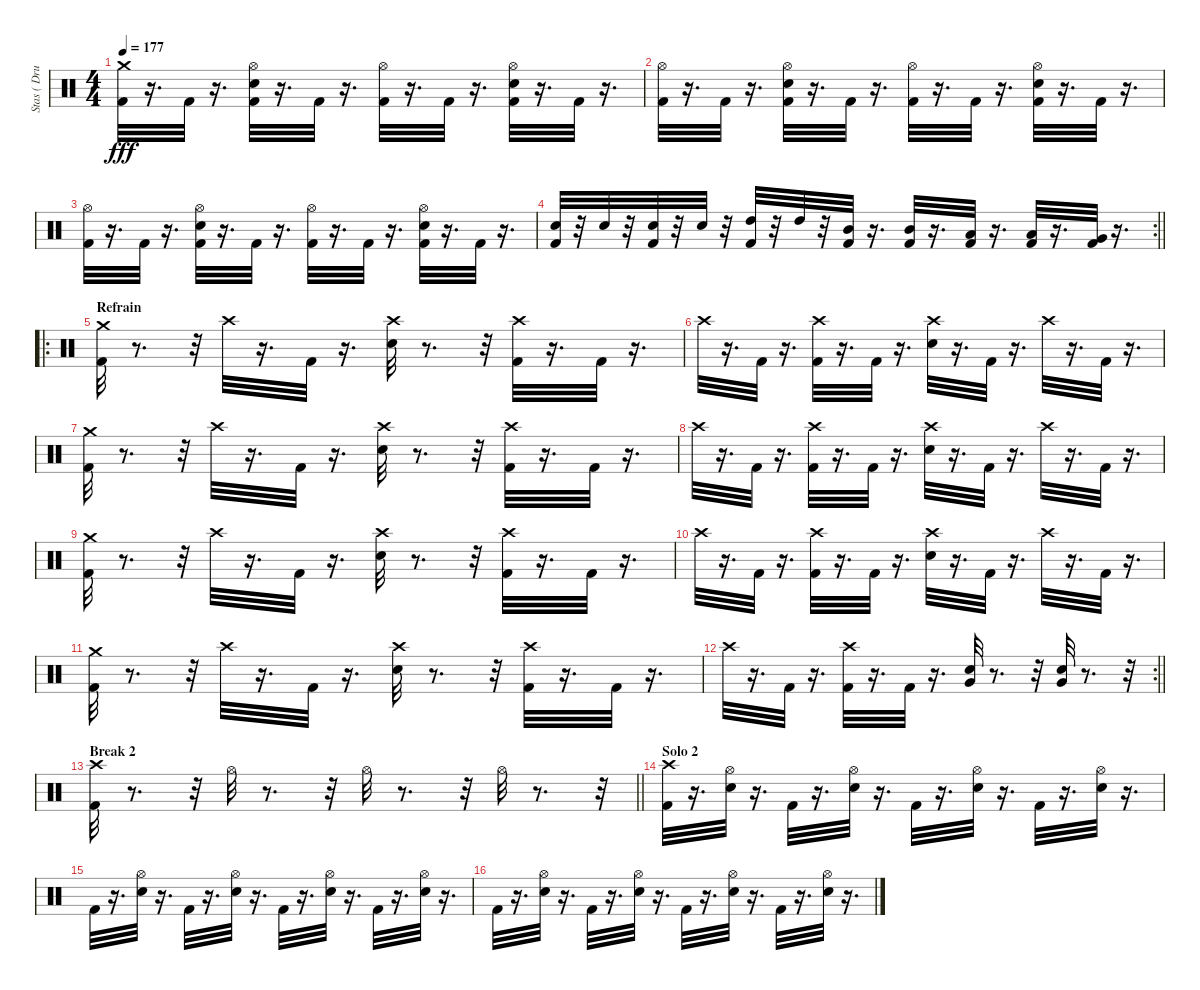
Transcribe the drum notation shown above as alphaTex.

\track ("Stas ( Drums )" "Stas ( Dru") {instrument percussion}
\staff {score}
\articulation defaults
\ts (4 4)
\tempo 177
\clef neutral
\ks c
("Kick (hit) 2" "Crash medium (hit)").32{dy fff} r.16{d} "Kick (hit) 2".32 r.16{d} ("Kick (hit) 2" "Electric Snare (hit)" "Hi-Hat (open)").32 r.16{d} "Kick (hit) 2".32 r.16{d} ("Kick (hit) 2" "Hi-Hat (open)").32 r.16{d} "Kick (hit) 2".32 r.16{d} ("Kick (hit) 2" "Electric Snare (hit)" "Hi-Hat (open)").32 r.16{d} "Kick (hit) 2".32 r.16{d} |
("Kick (hit) 2" "Hi-Hat (open)").32 r.16{d} "Kick (hit) 2".32 r.16{d} ("Kick (hit) 2" "Electric Snare (hit)" "Hi-Hat (open)").32 r.16{d} "Kick (hit) 2".32 r.16{d} ("Kick (hit) 2" "Hi-Hat (open)").32 r.16{d} "Kick (hit) 2".32 r.16{d} ("Kick (hit) 2" "Electric Snare (hit)" "Hi-Hat (open)").32 r.16{d} "Kick (hit) 2".32 r.16{d} |
("Kick (hit) 2" "Hi-Hat (open)").32 r.16{d} "Kick (hit) 2".32 r.16{d} ("Kick (hit) 2" "Electric Snare (hit)" "Hi-Hat (open)").32 r.16{d} "Kick (hit) 2".32 r.16{d} ("Kick (hit) 2" "Hi-Hat (open)").32 r.16{d} "Kick (hit) 2".32 r.16{d} ("Kick (hit) 2" "Electric Snare (hit)" "Hi-Hat (open)").32 r.16{d} "Kick (hit) 2".32 r.16{d} |
\rc 2
\barLineRight lightlight
("Kick (hit) 2" "Electric Snare (hit)").32 r.32 "Electric Snare (hit)".32 r.32 ("Kick (hit) 2" "Electric Snare (hit)").32 r.32 "Electric Snare (hit)".32 r.32 ("Kick (hit) 2" "High Tom (hit)").32 r.32 "High Tom (hit)".32 r.32 ("Kick (hit) 2" "Mid Tom (hit)").32 r.16{d} ("Kick (hit) 2" "Mid Tom (hit)").32 r.16{d} ("Kick (hit) 2" "Low Tom (hit)").32 r.16{d} ("Kick (hit) 2" "Low Tom (hit)").32 r.16{d} ("Kick (hit) 2" "Very Low Tom (hit)").32 r.16{d} |
\ro
\section ("" "Refrain")
("Kick (hit) 2" "Crash medium (hit)").32 r.8{d} r.32 "Crash high (hit)".32 r.16{d} "Kick (hit) 2".32 r.16{d} ("Electric Snare (hit)" "Crash high (hit)").32 r.8{d} r.32 ("Kick (hit) 2" "Crash high (hit)").32 r.16{d} "Kick (hit) 2".32 r.16{d} |
"Crash high (hit)".32 r.16{d} "Kick (hit) 2".32 r.16{d} ("Kick (hit) 2" "Crash high (hit)").32 r.16{d} "Kick (hit) 2".32 r.16{d} ("Electric Snare (hit)" "Crash high (hit)").32 r.16{d} "Kick (hit) 2".32 r.16{d} "Crash high (hit)".32 r.16{d} "Kick (hit) 2".32 r.16{d} |
("Kick (hit) 2" "Crash medium (hit)").32 r.8{d} r.32 "Crash high (hit)".32 r.16{d} "Kick (hit) 2".32 r.16{d} ("Electric Snare (hit)" "Crash high (hit)").32 r.8{d} r.32 ("Kick (hit) 2" "Crash high (hit)").32 r.16{d} "Kick (hit) 2".32 r.16{d} |
"Crash high (hit)".32 r.16{d} "Kick (hit) 2".32 r.16{d} ("Kick (hit) 2" "Crash high (hit)").32 r.16{d} "Kick (hit) 2".32 r.16{d} ("Electric Snare (hit)" "Crash high (hit)").32 r.16{d} "Kick (hit) 2".32 r.16{d} "Crash high (hit)".32 r.16{d} "Kick (hit) 2".32 r.16{d} |
("Kick (hit) 2" "Crash medium (hit)").32 r.8{d} r.32 "Crash high (hit)".32 r.16{d} "Kick (hit) 2".32 r.16{d} ("Electric Snare (hit)" "Crash high (hit)").32 r.8{d} r.32 ("Kick (hit) 2" "Crash high (hit)").32 r.16{d} "Kick (hit) 2".32 r.16{d} |
"Crash high (hit)".32 r.16{d} "Kick (hit) 2".32 r.16{d} ("Kick (hit) 2" "Crash high (hit)").32 r.16{d} "Kick (hit) 2".32 r.16{d} ("Electric Snare (hit)" "Crash high (hit)").32 r.16{d} "Kick (hit) 2".32 r.16{d} "Crash high (hit)".32 r.16{d} "Kick (hit) 2".32 r.16{d} |
("Kick (hit) 2" "Crash medium (hit)").32 r.8{d} r.32 "Crash high (hit)".32 r.16{d} "Kick (hit) 2".32 r.16{d} ("Electric Snare (hit)" "Crash high (hit)").32 r.8{d} r.32 ("Kick (hit) 2" "Crash high (hit)").32 r.16{d} "Kick (hit) 2".32 r.16{d} |
\rc 2
\barLineRight lightlight "Crash high (hit)".32
r.16{d} "Kick (hit) 2".32 r.16{d} ("Kick (hit) 2" "Crash high (hit)").32 r.16{d} "Kick (hit) 2".32 r.16{d} ("Electric Snare (hit)" "Very Low Tom (hit)").32 r.8{d} r.32 ("Electric Snare (hit)" "Very Low Tom (hit)").32 r.8{d} r.32 |
\section ("" "Break 2")
\barLineRight lightlight
("Kick (hit) 2" "Crash high (hit)").32 r.8{d} r.32 "Hi-Hat (open)".32 r.8{d} r.32 "Hi-Hat (open)".32 r.8{d} r.32 "Hi-Hat (open)".32 r.8{d} r.32 |
\section ("" "Solo 2")
("Kick (hit) 2" "Crash high (hit)").32 r.16{d} ("Electric Snare (hit)" "Hi-Hat (open)").32 r.16{d} "Kick (hit) 2".32 r.16{d} ("Electric Snare (hit)" "Hi-Hat (open)").32 r.16{d} "Kick (hit) 2".32 r.16{d} ("Electric Snare (hit)" "Hi-Hat (open)").32 r.16{d} "Kick (hit) 2".32 r.16{d} ("Electric Snare (hit)" "Hi-Hat (open)").32 r.16{d} |
"Kick (hit) 2".32 r.16{d} ("Electric Snare (hit)" "Hi-Hat (open)").32 r.16{d} "Kick (hit) 2".32 r.16{d} ("Electric Snare (hit)" "Hi-Hat (open)").32 r.16{d} "Kick (hit) 2".32 r.16{d} ("Electric Snare (hit)" "Hi-Hat (open)").32 r.16{d} "Kick (hit) 2".32 r.16{d} ("Electric Snare (hit)" "Hi-Hat (open)").32 r.16{d} |
"Kick (hit) 2".32 r.16{d} ("Electric Snare (hit)" "Hi-Hat (open)").32 r.16{d} "Kick (hit) 2".32 r.16{d} ("Electric Snare (hit)" "Hi-Hat (open)").32 r.16{d} "Kick (hit) 2".32 r.16{d} ("Electric Snare (hit)" "Hi-Hat (open)").32 r.16{d} "Kick (hit) 2".32 r.16{d} ("Electric Snare (hit)" "Hi-Hat (open)").32 r.16{d}
